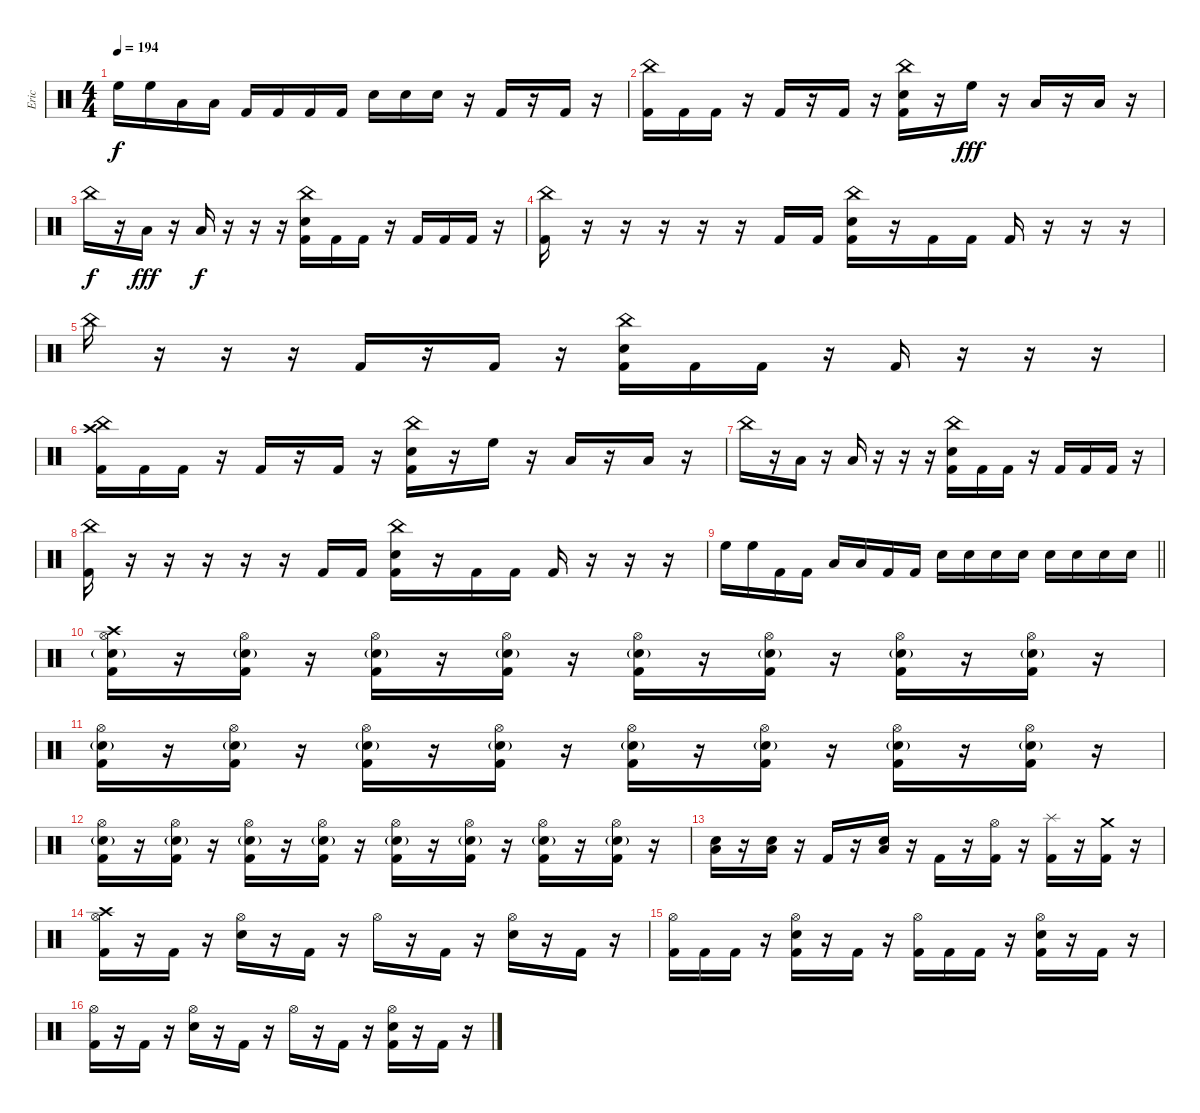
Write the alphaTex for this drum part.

\track ("Eric" "Eric") {instrument percussion}
\staff {score}
\articulation defaults
\ts (4 4)
\tempo 194
\clef neutral
\ks c "High Floor Tom (hit)".16{dy f} "High Floor Tom (hit)".16 "Low Tom (hit)".16 "Low Tom (hit)".16 "Kick (hit) 2".16 "Kick (hit) 2".16 "Kick (hit) 2".16 "Kick (hit) 2".16 "Electric Snare (hit)".16 "Electric Snare (hit)".16 "Electric Snare (hit)".16
r.16 "Kick (hit) 2".16 r.16 "Kick (hit) 2".16 r.16 |
("China (hit)" "Kick (hit) 2").16 "Kick (hit) 2".16 "Kick (hit) 2".16 r.16 "Kick (hit) 2".16 r.16 "Kick (hit) 2".16 r.16 ("China (hit)" "Electric Snare (hit)" "Kick (hit) 2").16 r.16 "High Floor Tom (hit)".16{dy fff} r.16 "Low Tom (hit)".16 r.16 "Low Tom (hit)".16 r.16 |
"China (hit)".16{dy f} r.16 "Low Floor Tom (hit)".16{dy fff} r.16 "Low Floor Tom (hit)".16{dy f} r.16 r.16 r.16 ("China (hit)" "Electric Snare (hit)" "Kick (hit) 2").16 "Kick (hit) 2".16 "Kick (hit) 2".16 r.16 "Kick (hit) 2".16 "Kick (hit) 2".16 "Kick (hit) 2".16 r.16 |
("China (hit)" "Kick (hit) 2").16 r.16 r.16 r.16 r.16 r.16 "Kick (hit) 2".16 "Kick (hit) 2".16 ("China (hit)" "Electric Snare (hit)" "Kick (hit) 2").16 r.16 "Kick (hit) 2".16 "Kick (hit) 2".16 "Kick (hit) 2".16 r.16 r.16 r.16 |
"China (hit)".16 r.16 r.16 r.16 "Kick (hit) 2".16 r.16 "Kick (hit) 2".16 r.16 ("China (hit)" "Electric Snare (hit)" "Kick (hit) 2").16 "Kick (hit) 2".16 "Kick (hit) 2".16 r.16 "Kick (hit) 2".16 r.16 r.16 r.16 |
("China (hit)" "Crash high (hit)" "Kick (hit) 2").16 "Kick (hit) 2".16 "Kick (hit) 2".16 r.16 "Kick (hit) 2".16 r.16 "Kick (hit) 2".16 r.16 ("China (hit)" "Electric Snare (hit)" "Kick (hit) 2").16 r.16 "High Floor Tom (hit)".16 r.16 "Low Tom (hit)".16 r.16 "Low Tom (hit)".16 r.16 |
"China (hit)".16 r.16 "Low Floor Tom (hit)".16 r.16 "Low Floor Tom (hit)".16 r.16 r.16 r.16 ("China (hit)" "Electric Snare (hit)" "Kick (hit) 2").16 "Kick (hit) 2".16 "Kick (hit) 2".16 r.16 "Kick (hit) 2".16 "Kick (hit) 2".16 "Kick (hit) 2".16 r.16 |
("China (hit)" "Kick (hit) 2").16 r.16 r.16 r.16 r.16 r.16 "Kick (hit) 2".16 "Kick (hit) 2".16 ("China (hit)" "Electric Snare (hit)" "Kick (hit) 2").16 r.16 "Kick (hit) 2".16 "Kick (hit) 2".16 "Kick (hit) 2".16 r.16 r.16 r.16 |
\barLineRight lightlight "High Floor Tom (hit)".16 "High Floor Tom (hit)".16 "Kick (hit) 2".16 "Kick (hit) 2".16 "Low Tom (hit)".16 "Low Tom (hit)".16 "Kick (hit) 2".16 "Kick (hit) 2".16 "Electric Snare (hit)".16 "Electric Snare (hit)".16 "Electric Snare (hit)".16 "Electric Snare (hit)".16 "Electric Snare (hit)".16 "Electric Snare (hit)".16 "Electric Snare (hit)".16 "Electric Snare (hit)".16
|
\section ("" "")
("Crash high (hit)" "Hi-Hat (open)" "Electric Snare (hit)"{g} "Kick (hit) 2").16 r.16 ("Hi-Hat (open)" "Electric Snare (hit)"{g} "Kick (hit) 2").16 r.16 ("Hi-Hat (open)" "Electric Snare (hit)"{g} "Kick (hit) 2").16 r.16 ("Hi-Hat (open)" "Electric Snare (hit)"{g} "Kick (hit) 2").16 r.16 ("Hi-Hat (open)" "Electric Snare (hit)"{g} "Kick (hit) 2").16 r.16 ("Hi-Hat (open)" "Electric Snare (hit)"{g} "Kick (hit) 2").16 r.16 ("Hi-Hat (open)" "Electric Snare (hit)"{g} "Kick (hit) 2").16 r.16 ("Hi-Hat (open)" "Electric Snare (hit)"{g} "Kick (hit) 2").16 r.16 |
("Hi-Hat (open)" "Electric Snare (hit)"{g} "Kick (hit) 2").16 r.16 ("Hi-Hat (open)" "Electric Snare (hit)"{g} "Kick (hit) 2").16 r.16 ("Hi-Hat (open)" "Electric Snare (hit)"{g} "Kick (hit) 2").16 r.16 ("Hi-Hat (open)" "Electric Snare (hit)"{g} "Kick (hit) 2").16 r.16 ("Hi-Hat (open)" "Electric Snare (hit)"{g} "Kick (hit) 2").16 r.16 ("Hi-Hat (open)" "Electric Snare (hit)"{g} "Kick (hit) 2").16 r.16 ("Hi-Hat (open)" "Electric Snare (hit)"{g} "Kick (hit) 2").16 r.16 ("Hi-Hat (open)" "Electric Snare (hit)"{g} "Kick (hit) 2").16 r.16 |
("Hi-Hat (open)" "Electric Snare (hit)"{g} "Kick (hit) 2").16 r.16 ("Hi-Hat (open)" "Electric Snare (hit)"{g} "Kick (hit) 2").16 r.16 ("Hi-Hat (open)" "Electric Snare (hit)"{g} "Kick (hit) 2").16 r.16 ("Hi-Hat (open)" "Electric Snare (hit)"{g} "Kick (hit) 2").16 r.16 ("Hi-Hat (open)" "Electric Snare (hit)"{g} "Kick (hit) 2").16 r.16 ("Hi-Hat (open)" "Electric Snare (hit)"{g} "Kick (hit) 2").16 r.16 ("Hi-Hat (open)" "Electric Snare (hit)"{g} "Kick (hit) 2").16 r.16 ("Hi-Hat (open)" "Electric Snare (hit)"{g} "Kick (hit) 2").16 r.16 |
("Electric Snare (hit)" "Low Floor Tom (hit)").16 r.16 ("Electric Snare (hit)" "Low Floor Tom (hit)").16 r.16 "Kick (hit) 2".16 r.16 ("Electric Snare (hit)" "Low Floor Tom (hit)").16 r.16 "Kick (hit) 2".16 r.16 ("Hi-Hat (open)" "Kick (hit) 2").16 r.16 ("Splash (hit)" "Kick (hit) 2").16 r.16 ("Crash medium (hit)" "Kick (hit) 2").16 r.16 |
("Crash high (hit)" "Hi-Hat (open)" "Kick (hit) 2").16 r.16 "Kick (hit) 2".16 r.16 ("Hi-Hat (open)" "Electric Snare (hit)").16 r.16 "Kick (hit) 2".16 r.16 "Hi-Hat (open)".16 r.16 "Kick (hit) 2".16 r.16 ("Hi-Hat (open)" "Electric Snare (hit)").16 r.16 "Kick (hit) 2".16 r.16 |
("Hi-Hat (open)" "Kick (hit) 2").16 "Kick (hit) 2".16 "Kick (hit) 2".16 r.16 ("Hi-Hat (open)" "Electric Snare (hit)" "Kick (hit) 2").16 r.16 "Kick (hit) 2".16 r.16 ("Hi-Hat (open)" "Kick (hit) 2").16 "Kick (hit) 2".16 "Kick (hit) 2".16 r.16 ("Hi-Hat (open)" "Electric Snare (hit)" "Kick (hit) 2").16 r.16 "Kick (hit) 2".16 r.16 |
("Hi-Hat (open)" "Kick (hit) 2").16 r.16 "Kick (hit) 2".16 r.16 ("Hi-Hat (open)" "Electric Snare (hit)").16 r.16 "Kick (hit) 2".16 r.16 "Hi-Hat (open)".16 r.16 "Kick (hit) 2".16 r.16 ("Hi-Hat (open)" "Electric Snare (hit)" "Kick (hit) 2").16 r.16 "Kick (hit) 2".16 r.16
